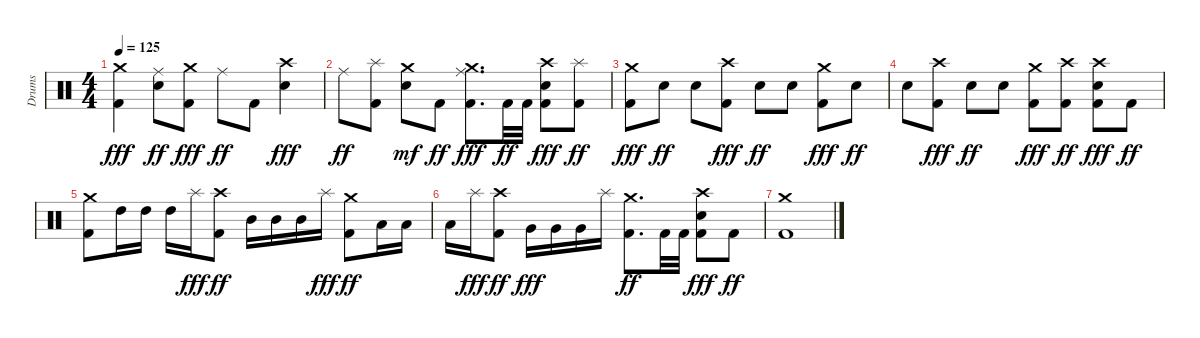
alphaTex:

\track ("Drums" "Drums") {instrument percussion}
\staff {score}
\articulation defaults
\ts (4 4)
\tempo 125
\clef neutral
\ks c
("Kick (hit) 2" "Crash medium (hit)").4{dy fff} ("Electric Snare (hit)" "Ride (middle)").8{dy ff} ("Kick (hit) 2" "Crash medium (hit)").8{dy fff} "Ride (middle)".8{dy ff} "Kick (hit) 2".8 ("Electric Snare (hit)" "Crash high (hit)").4{dy fff} |
"Ride (middle)".8{dy ff} ("Kick (hit) 2" "Splash (hit)").8 ("Electric Snare (hit)" "Crash medium (hit)").8{dy mf} "Kick (hit) 2".8{dy ff} ("Kick (hit) 2" "Ride (middle)" "Crash medium (hit)").8{d dy fff} "Kick (hit) 2".32{dy ff} "Kick (hit) 2".32 ("Kick (hit) 2" "Electric Snare (hit)" "Crash high (hit)").8{dy fff} ("Kick (hit) 2" "Splash (hit)").8{dy ff} |
("Kick (hit) 2" "Crash medium (hit)").8{dy fff} "Electric Snare (hit)".8{dy ff} "Electric Snare (hit)".8 ("Kick (hit) 2" "Crash high (hit)").8{dy fff} "Electric Snare (hit)".8{dy ff} "Electric Snare (hit)".8 ("Kick (hit) 2" "Crash medium (hit)").8{dy fff} "Electric Snare (hit)".8{dy ff} |
"Electric Snare (hit)".8 ("Kick (hit) 2" "Crash high (hit)").8{dy fff} "Electric Snare (hit)".8{dy ff} "Electric Snare (hit)".8 ("Kick (hit) 2" "Crash medium (hit)").8{dy fff} ("Kick (hit) 2" "Crash high (hit)").8{dy ff} ("Kick (hit) 2" "Electric Snare (hit)" "Crash high (hit)").8{dy fff} "Kick (hit) 2".8{dy ff} |
("Kick (hit) 2" "Crash medium (hit)").8 "High Tom (hit)".16 "High Tom (hit)".16 "High Tom (hit)".16 "Splash (hit)".16{dy fff} ("Kick (hit) 2" "Crash high (hit)").8{dy ff} "Mid Tom (hit)".16 "Mid Tom (hit)".16 "Mid Tom (hit)".16 "Splash (hit)".16{dy fff} ("Kick (hit) 2" "Crash medium (hit)").8{dy ff} "Low Tom (hit)".16 "Low Tom (hit)".16 |
"Low Tom (hit)".16 "Splash (hit)".16{dy fff} ("Kick (hit) 2" "Crash high (hit)").8{dy ff} "Very Low Tom (hit)".16{dy fff} "Very Low Tom (hit)".16 "Very Low Tom (hit)".16 "Splash (hit)".16 ("Kick (hit) 2" "Crash medium (hit)").8{d dy ff} "Kick (hit) 2".32 "Kick (hit) 2".32 ("Kick (hit) 2" "Electric Snare (hit)" "Crash high (hit)").8{dy fff} "Kick (hit) 2".8{dy ff} |
("Kick (hit) 2" "Crash medium (hit)").1
